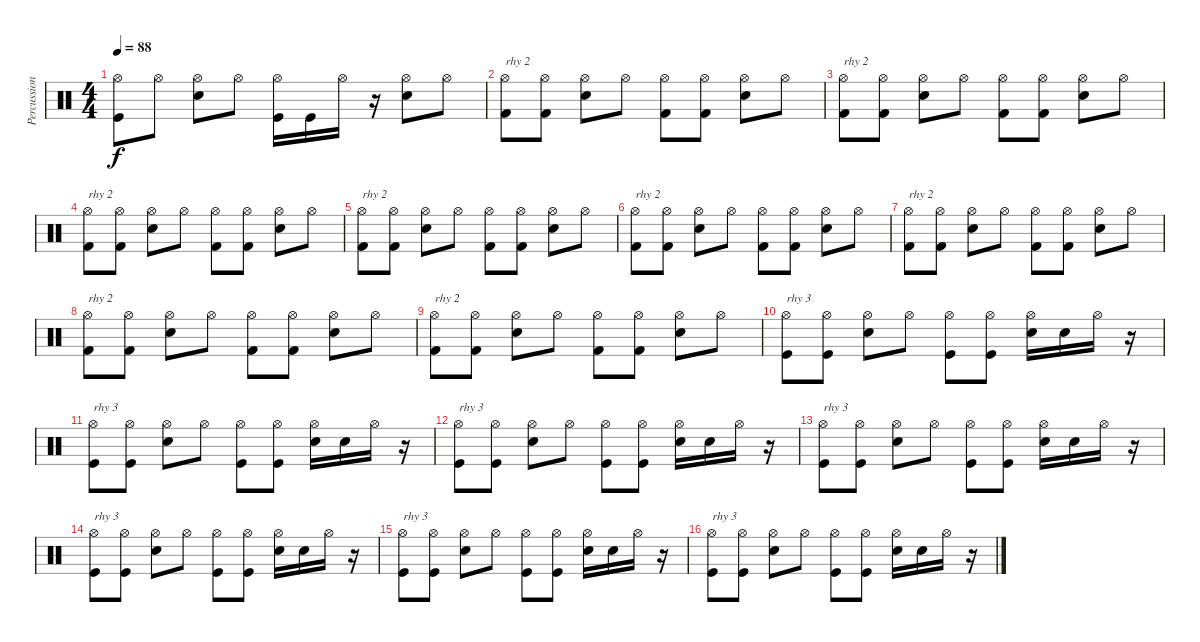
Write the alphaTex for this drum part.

\track ("Percussion" "Percussion") {instrument percussion}
\staff {score}
\articulation defaults
\ts (4 4)
\tempo 88
\clef neutral
\ks c
("Hi-Hat (open)" "Kick (hit)").8{dy f} "Hi-Hat (open)".8 ("Hi-Hat (open)" "Snare (hit) 2").8 "Hi-Hat (open)".8 ("Hi-Hat (open)" "Kick (hit)").16 "Kick (hit)".16 "Hi-Hat (open)".16 r.16 ("Hi-Hat (open)" "Snare (hit) 2").8 "Hi-Hat (open)".8 |
("Hi-Hat (open)" "Kick (hit) 2").8{txt "rhy 2"} ("Hi-Hat (open)" "Kick (hit) 2").8 ("Hi-Hat (open)" "Snare (hit) 2").8 "Hi-Hat (open)".8 ("Hi-Hat (open)" "Kick (hit) 2").8 ("Hi-Hat (open)" "Kick (hit) 2").8 ("Hi-Hat (open)" "Snare (hit) 2").8 "Hi-Hat (open)".8 |
("Hi-Hat (open)" "Kick (hit) 2").8{txt "rhy 2"} ("Hi-Hat (open)" "Kick (hit) 2").8 ("Hi-Hat (open)" "Snare (hit) 2").8 "Hi-Hat (open)".8 ("Hi-Hat (open)" "Kick (hit) 2").8 ("Hi-Hat (open)" "Kick (hit) 2").8 ("Hi-Hat (open)" "Snare (hit) 2").8 "Hi-Hat (open)".8 |
("Hi-Hat (open)" "Kick (hit) 2").8{txt "rhy 2"} ("Hi-Hat (open)" "Kick (hit) 2").8 ("Hi-Hat (open)" "Snare (hit) 2").8 "Hi-Hat (open)".8 ("Hi-Hat (open)" "Kick (hit) 2").8 ("Hi-Hat (open)" "Kick (hit) 2").8 ("Hi-Hat (open)" "Snare (hit) 2").8 "Hi-Hat (open)".8 |
("Hi-Hat (open)" "Kick (hit) 2").8{txt "rhy 2"} ("Hi-Hat (open)" "Kick (hit) 2").8 ("Hi-Hat (open)" "Snare (hit) 2").8 "Hi-Hat (open)".8 ("Hi-Hat (open)" "Kick (hit) 2").8 ("Hi-Hat (open)" "Kick (hit) 2").8 ("Hi-Hat (open)" "Snare (hit) 2").8 "Hi-Hat (open)".8 |
("Hi-Hat (open)" "Kick (hit) 2").8{txt "rhy 2"} ("Hi-Hat (open)" "Kick (hit) 2").8 ("Hi-Hat (open)" "Snare (hit) 2").8 "Hi-Hat (open)".8 ("Hi-Hat (open)" "Kick (hit) 2").8 ("Hi-Hat (open)" "Kick (hit) 2").8 ("Hi-Hat (open)" "Snare (hit) 2").8 "Hi-Hat (open)".8 |
("Hi-Hat (open)" "Kick (hit) 2").8{txt "rhy 2"} ("Hi-Hat (open)" "Kick (hit) 2").8 ("Hi-Hat (open)" "Snare (hit) 2").8 "Hi-Hat (open)".8 ("Hi-Hat (open)" "Kick (hit) 2").8 ("Hi-Hat (open)" "Kick (hit) 2").8 ("Hi-Hat (open)" "Snare (hit) 2").8 "Hi-Hat (open)".8 |
("Hi-Hat (open)" "Kick (hit) 2").8{txt "rhy 2"} ("Hi-Hat (open)" "Kick (hit) 2").8 ("Hi-Hat (open)" "Snare (hit) 2").8 "Hi-Hat (open)".8 ("Hi-Hat (open)" "Kick (hit) 2").8 ("Hi-Hat (open)" "Kick (hit) 2").8 ("Hi-Hat (open)" "Snare (hit) 2").8 "Hi-Hat (open)".8 |
("Hi-Hat (open)" "Kick (hit) 2").8{txt "rhy 2"} ("Hi-Hat (open)" "Kick (hit) 2").8 ("Hi-Hat (open)" "Snare (hit) 2").8 "Hi-Hat (open)".8 ("Hi-Hat (open)" "Kick (hit) 2").8 ("Hi-Hat (open)" "Kick (hit) 2").8 ("Hi-Hat (open)" "Snare (hit) 2").8 "Hi-Hat (open)".8 |
("Hi-Hat (open)" "Kick (hit)").8{txt "rhy 3"} ("Hi-Hat (open)" "Kick (hit)").8 ("Hi-Hat (open)" "Snare (hit) 2").8 "Hi-Hat (open)".8 ("Hi-Hat (open)" "Kick (hit)").8 ("Hi-Hat (open)" "Kick (hit)").8 ("Hi-Hat (open)" "Snare (hit) 2").16 "Snare (hit) 2".16 "Hi-Hat (open)".16 r.16 |
("Hi-Hat (open)" "Kick (hit)").8{txt "rhy 3"} ("Hi-Hat (open)" "Kick (hit)").8 ("Hi-Hat (open)" "Snare (hit) 2").8 "Hi-Hat (open)".8 ("Hi-Hat (open)" "Kick (hit)").8 ("Hi-Hat (open)" "Kick (hit)").8 ("Hi-Hat (open)" "Snare (hit) 2").16 "Snare (hit) 2".16 "Hi-Hat (open)".16 r.16 |
("Hi-Hat (open)" "Kick (hit)").8{txt "rhy 3"} ("Hi-Hat (open)" "Kick (hit)").8 ("Hi-Hat (open)" "Snare (hit) 2").8 "Hi-Hat (open)".8 ("Hi-Hat (open)" "Kick (hit)").8 ("Hi-Hat (open)" "Kick (hit)").8 ("Hi-Hat (open)" "Snare (hit) 2").16 "Snare (hit) 2".16 "Hi-Hat (open)".16 r.16 |
("Hi-Hat (open)" "Kick (hit)").8{txt "rhy 3"} ("Hi-Hat (open)" "Kick (hit)").8 ("Hi-Hat (open)" "Snare (hit) 2").8 "Hi-Hat (open)".8 ("Hi-Hat (open)" "Kick (hit)").8 ("Hi-Hat (open)" "Kick (hit)").8 ("Hi-Hat (open)" "Snare (hit) 2").16 "Snare (hit) 2".16 "Hi-Hat (open)".16 r.16 |
("Hi-Hat (open)" "Kick (hit)").8{txt "rhy 3"} ("Hi-Hat (open)" "Kick (hit)").8 ("Hi-Hat (open)" "Snare (hit) 2").8 "Hi-Hat (open)".8 ("Hi-Hat (open)" "Kick (hit)").8 ("Hi-Hat (open)" "Kick (hit)").8 ("Hi-Hat (open)" "Snare (hit) 2").16 "Snare (hit) 2".16 "Hi-Hat (open)".16 r.16 |
("Hi-Hat (open)" "Kick (hit)").8{txt "rhy 3"} ("Hi-Hat (open)" "Kick (hit)").8 ("Hi-Hat (open)" "Snare (hit) 2").8 "Hi-Hat (open)".8 ("Hi-Hat (open)" "Kick (hit)").8 ("Hi-Hat (open)" "Kick (hit)").8 ("Hi-Hat (open)" "Snare (hit) 2").16 "Snare (hit) 2".16 "Hi-Hat (open)".16 r.16 |
("Hi-Hat (open)" "Kick (hit)").8{txt "rhy 3"} ("Hi-Hat (open)" "Kick (hit)").8 ("Hi-Hat (open)" "Snare (hit) 2").8 "Hi-Hat (open)".8 ("Hi-Hat (open)" "Kick (hit)").8 ("Hi-Hat (open)" "Kick (hit)").8 ("Hi-Hat (open)" "Snare (hit) 2").16 "Snare (hit) 2".16 "Hi-Hat (open)".16 r.16
